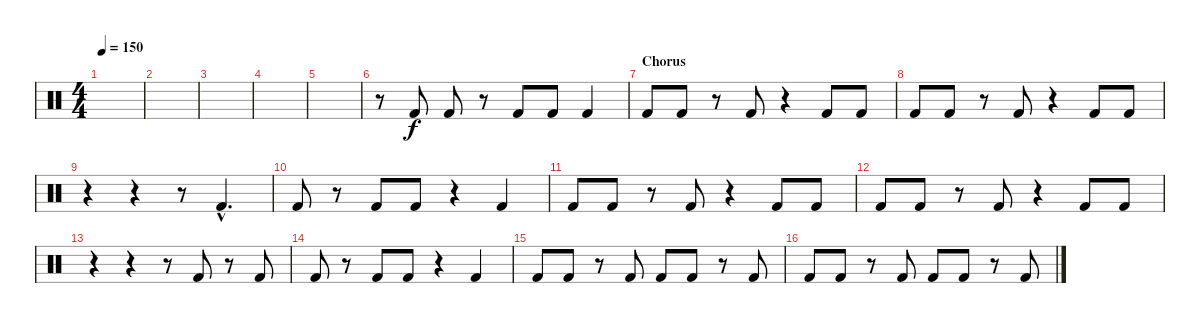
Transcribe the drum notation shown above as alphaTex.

\track "" {instrument percussion}
\staff {score}
\articulation defaults
\ts (4 4)
\tempo 150
\clef neutral
\ks c
|
|
|
|
|
r.8 "Kick (hit) 2".8 "Kick (hit) 2".8 r.8 "Kick (hit) 2".8 "Kick (hit) 2".8 "Kick (hit) 2".4 |
\section ("" "Chorus")
"Kick (hit) 2".8 "Kick (hit) 2".8 r.8 "Kick (hit) 2".8 r.4 "Kick (hit) 2".8 "Kick (hit) 2".8 |
"Kick (hit) 2".8 "Kick (hit) 2".8 r.8 "Kick (hit) 2".8 r.4 "Kick (hit) 2".8 "Kick (hit) 2".8 |
r.4 r.4 r.8 "Kick (hit) 2"{hac}.4{d} |
"Kick (hit) 2".8 r.8 "Kick (hit) 2".8 "Kick (hit) 2".8 r.4 "Kick (hit) 2".4 |
"Kick (hit) 2".8 "Kick (hit) 2".8 r.8 "Kick (hit) 2".8 r.4 "Kick (hit) 2".8 "Kick (hit) 2".8 |
"Kick (hit) 2".8 "Kick (hit) 2".8 r.8 "Kick (hit) 2".8 r.4 "Kick (hit) 2".8 "Kick (hit) 2".8 |
r.4 r.4 r.8 "Kick (hit) 2".8 r.8 "Kick (hit) 2".8 |
"Kick (hit) 2".8 r.8 "Kick (hit) 2".8 "Kick (hit) 2".8 r.4 "Kick (hit) 2".4 |
"Kick (hit) 2".8 "Kick (hit) 2".8 r.8 "Kick (hit) 2".8 "Kick (hit) 2".8 "Kick (hit) 2".8 r.8 "Kick (hit) 2".8 |
"Kick (hit) 2".8 "Kick (hit) 2".8 r.8 "Kick (hit) 2".8 "Kick (hit) 2".8 "Kick (hit) 2".8 r.8 "Kick (hit) 2".8
